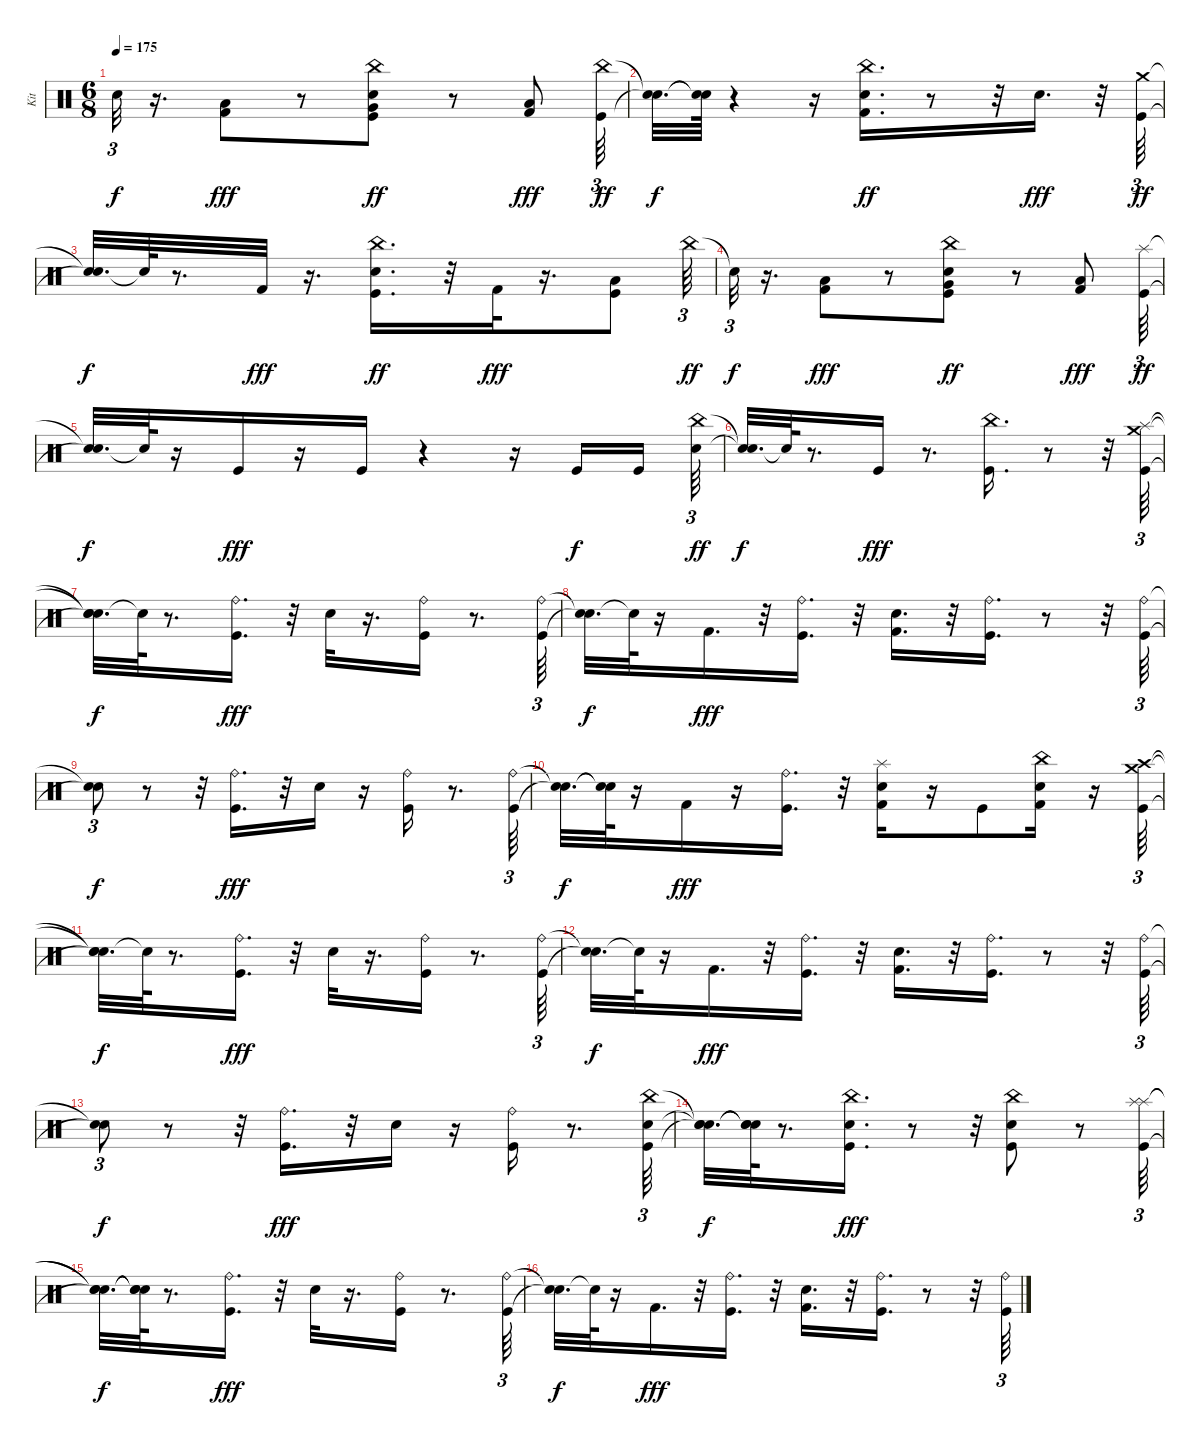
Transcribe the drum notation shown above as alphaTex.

\track ("Kit" "Kit") {instrument percussion}
\staff {score}
\articulation defaults
\ts (6 8)
\tempo 175
\clef neutral
\ks c "Snare (hit)"{t}.32{tu (3 2) dy f}
r.16{d} ("Kick (hit) 2" "Low Floor Tom (hit)").8{dy fff} r.8 ("Kick (hit)" "Snare (hit) 2" "Very Low Tom (hit)" "China (hit)").8{dy ff} r.8 ("Kick (hit) 2" "Low Floor Tom (hit)").8{dy fff} ("Kick (hit)" "China (hit)").64{tu (3 2) dy ff} |
("Snare (hit)"{t} "Snare (hit)"{t}).32{d dy f} ("Snare (hit)"{t} "Snare (hit)"{t}).64 r.4 r.16 ("Kick (hit) 2" "Snare (hit) 2" "China (hit)").16{d dy ff} r.8 r.32 "Snare (hit) 2".16{d dy fff} r.32 ("Kick (hit)" "Crash medium (hit)").64{tu (3 2) dy ff} |
("Snare (hit)"{t} "Snare (hit)"{t}).32{d dy f} "Snare (hit)"{t}.64 r.8{d} "Kick (hit) 2".32{dy fff} r.16{d} ("Kick (hit)" "Snare (hit) 2" "China (hit)").16{d dy ff} r.32 "Kick (hit) 2".32{dy fff} r.16{d} ("Kick (hit)" "Low Floor Tom (hit)").8 "China (hit)".64{tu (3 2) dy ff} |
"Snare (hit)"{t}.32{tu (3 2) dy f} r.16{d} ("Kick (hit) 2" "Low Floor Tom (hit)").8{dy fff} r.8 ("Kick (hit)" "Snare (hit) 2" "Very Low Tom (hit)" "China (hit)").8{dy ff} r.8 ("Kick (hit) 2" "Low Floor Tom (hit)").8{dy fff} ("Kick (hit)" "Splash (hit)").64{tu (3 2) dy ff} |
("Snare (hit)"{t} "Snare (hit)"{t}).32{d dy f} "Snare (hit)"{t}.64 r.16 "Kick (hit)".16{dy fff} r.16 "Kick (hit)".16 r.4 r.16 "Kick (hit)".16{dy f} "Kick (hit)".16 ("Snare (hit) 2" "China (hit)").64{tu (3 2) dy ff} |
("Snare (hit)"{t} "Snare (hit)"{t}).32{d dy f} "Snare (hit)"{t}.64 r.8{d} "Kick (hit)".16{dy fff} r.8{d} ("Kick (hit)" "China (hit)").16{d} r.8 r.32 ("Kick (hit)" "Splash (hit)" "Crash medium (hit)").64{tu (3 2)} |
("Snare (hit)"{t} "Snare (hit)"{t} "Snare (hit)"{t}).32{d dy f} "Snare (hit)"{t}.64 r.8{d} ("Kick (hit)" "Ride (bell)").16{d dy fff} r.32 "Snare (hit) 2".32 r.16{d} ("Kick (hit)" "Ride (bell)").16 r.8{d} ("Kick (hit)" "Ride (bell)").64{tu (3 2)} |
("Snare (hit)"{t} "Snare (hit)"{t}).32{d dy f} "Snare (hit)"{t}.64 r.16 "Kick (hit) 2".16{d dy fff} r.32 ("Kick (hit)" "Ride (bell)").16{d} r.32 ("Kick (hit) 2" "Snare (hit) 2").16{d} r.32 ("Kick (hit)" "Ride (bell)").16{d} r.8 r.32 ("Kick (hit)" "Ride (bell)").64{tu (3 2)} |
("Snare (hit)"{t} "Snare (hit)"{t}).8{tu (3 2) dy f} r.8 r.32 ("Kick (hit)" "Ride (bell)").16{d dy fff} r.32 "Snare (hit) 2".16 r.16 ("Kick (hit)" "Ride (bell)").16 r.8{d} ("Kick (hit)" "Ride (bell)").64{tu (3 2)} |
("Snare (hit)"{t} "Snare (hit)"{t}).32{d dy f} ("Snare (hit)"{t} "Snare (hit)"{t}).64 r.16 "Kick (hit) 2".16{dy fff} r.16 ("Kick (hit)" "Ride (bell)").16{d} r.32 ("Kick (hit) 2" "Snare (hit) 2" "Splash (hit)").16 r.16 "Kick (hit)".8 ("Kick (hit) 2" "Snare (hit) 2" "China (hit)").16 r.16 ("Kick (hit)" "Crash high (hit)" "Crash medium (hit)").64{tu (3 2)} |
("Snare (hit)"{t} "Snare (hit)"{t} "Snare (hit)"{t}).32{d dy f} "Snare (hit)"{t}.64 r.8{d} ("Kick (hit)" "Ride (bell)").16{d dy fff} r.32 "Snare (hit) 2".32 r.16{d} ("Kick (hit)" "Ride (bell)").16 r.8{d} ("Kick (hit)" "Ride (bell)").64{tu (3 2)} |
("Snare (hit)"{t} "Snare (hit)"{t}).32{d dy f} "Snare (hit)"{t}.64 r.16 "Kick (hit) 2".16{d dy fff} r.32 ("Kick (hit)" "Ride (bell)").16{d} r.32 ("Kick (hit) 2" "Snare (hit) 2").16{d} r.32 ("Kick (hit)" "Ride (bell)").16{d} r.8 r.32 ("Kick (hit)" "Ride (bell)").64{tu (3 2)} |
("Snare (hit)"{t} "Snare (hit)"{t}).8{tu (3 2) dy f} r.8 r.32 ("Kick (hit)" "Ride (bell)").16{d dy fff} r.32 "Snare (hit) 2".16 r.16 ("Kick (hit)" "Ride (bell)").16 r.8{d} ("Kick (hit)" "Snare (hit) 2" "China (hit)").64{tu (3 2)} |
("Snare (hit)"{t} "Snare (hit)"{t} "Snare (hit)"{t}).32{d dy f} ("Snare (hit)"{t} "Snare (hit)"{t} "Snare (hit)"{t}).64 r.8{d} ("Kick (hit)" "Snare (hit) 2" "China (hit)").16{d dy fff} r.8 r.32 ("Kick (hit)" "Snare (hit) 2" "China (hit)").8 r.8 ("Kick (hit)" "Splash (hit)" "Splash (hit)").64{tu (3 2)} |
("Snare (hit)"{t} "Snare (hit)"{t} "Snare (hit)"{t}).32{d dy f} ("Snare (hit)"{t} "Snare (hit)"{t} "Snare (hit)"{t}).64 r.8{d} ("Kick (hit)" "Ride (bell)").16{d dy fff} r.32 "Snare (hit) 2".32 r.16{d} ("Kick (hit)" "Ride (bell)").16 r.8{d} ("Kick (hit)" "Ride (bell)").64{tu (3 2)} |
("Snare (hit)"{t} "Snare (hit)"{t}).32{d dy f} "Snare (hit)"{t}.64 r.16 "Kick (hit) 2".16{d dy fff} r.32 ("Kick (hit)" "Ride (bell)").16{d} r.32 ("Kick (hit) 2" "Snare (hit) 2").16{d} r.32 ("Kick (hit)" "Ride (bell)").16{d} r.8 r.32 ("Kick (hit)" "Ride (bell)").64{tu (3 2)}
